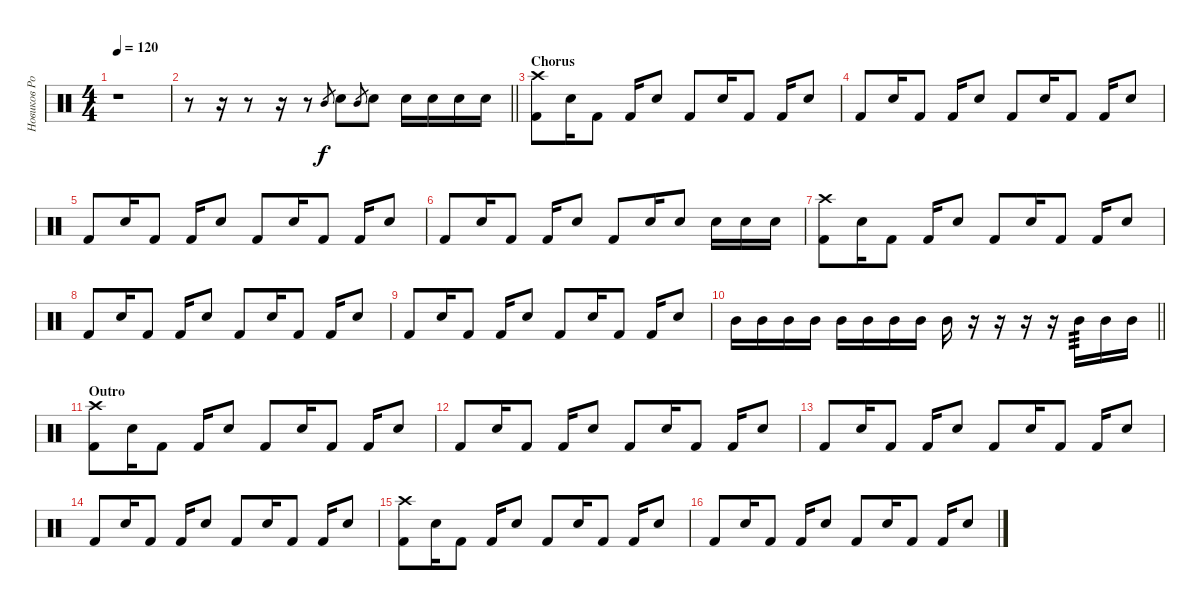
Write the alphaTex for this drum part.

\track ("Новиков Роман ( Ударные )" "Новиков Ро") {instrument percussion}
\staff {score}
\articulation defaults
\ts (4 4)
\tempo 120
\clef neutral
\ks c
r.1{dy f} |
\barLineRight lightlight
r.8 r.16 r.8 r.16 r.8 "Mid Tom (hit)"{h}.8{gr} "Snare (hit) 2".8 "Mid Tom (hit)"{h}.8{gr} "Snare (hit) 2".8 "Snare (hit) 2".16 "Snare (hit) 2".16 "Snare (hit) 2".16 "Snare (hit) 2".16 |
\section ("" "Chorus")
("Crash high (hit)" "Kick (hit) 2").8 "Electric Snare (hit)".16 "Kick (hit) 2".8 "Kick (hit) 2".16 "Electric Snare (hit)".8 "Kick (hit) 2".8 "Electric Snare (hit)".16 "Kick (hit) 2".8 "Kick (hit) 2".16 "Electric Snare (hit)".8 |
"Kick (hit) 2".8 "Electric Snare (hit)".16 "Kick (hit) 2".8 "Kick (hit) 2".16 "Electric Snare (hit)".8 "Kick (hit) 2".8 "Electric Snare (hit)".16 "Kick (hit) 2".8 "Kick (hit) 2".16 "Electric Snare (hit)".8 |
"Kick (hit) 2".8 "Electric Snare (hit)".16 "Kick (hit) 2".8 "Kick (hit) 2".16 "Electric Snare (hit)".8 "Kick (hit) 2".8 "Electric Snare (hit)".16 "Kick (hit) 2".8 "Kick (hit) 2".16 "Electric Snare (hit)".8 |
"Kick (hit) 2".8 "Electric Snare (hit)".16 "Kick (hit) 2".8 "Kick (hit) 2".16 "Electric Snare (hit)".8 "Kick (hit) 2".8 "Electric Snare (hit)".16 "Snare (hit) 2".8 "Snare (hit) 2".16 "Snare (hit) 2".16 "Snare (hit) 2".16 |
("Crash high (hit)" "Kick (hit) 2").8 "Electric Snare (hit)".16 "Kick (hit) 2".8 "Kick (hit) 2".16 "Electric Snare (hit)".8 "Kick (hit) 2".8 "Electric Snare (hit)".16 "Kick (hit) 2".8 "Kick (hit) 2".16 "Electric Snare (hit)".8 |
"Kick (hit) 2".8 "Electric Snare (hit)".16 "Kick (hit) 2".8 "Kick (hit) 2".16 "Electric Snare (hit)".8 "Kick (hit) 2".8 "Electric Snare (hit)".16 "Kick (hit) 2".8 "Kick (hit) 2".16 "Electric Snare (hit)".8 |
"Kick (hit) 2".8 "Electric Snare (hit)".16 "Kick (hit) 2".8 "Kick (hit) 2".16 "Electric Snare (hit)".8 "Kick (hit) 2".8 "Electric Snare (hit)".16 "Kick (hit) 2".8 "Kick (hit) 2".16 "Electric Snare (hit)".8 |
\barLineRight lightlight "Mid Tom (hit)".16 "Mid Tom (hit)".16 "Mid Tom (hit)".16 "Mid Tom (hit)".16 "Mid Tom (hit)".16 "Mid Tom (hit)".16 "Mid Tom (hit)".16 "Mid Tom (hit)".16 "Mid Tom (hit)".16
r.16 r.16 r.16 r.16 "Mid Tom (hit)".16{tp 3} "Mid Tom (hit)".16 "Mid Tom (hit)".16 |
\section ("" "Outro")
("Crash high (hit)" "Kick (hit) 2").8 "Electric Snare (hit)".16 "Kick (hit) 2".8 "Kick (hit) 2".16 "Electric Snare (hit)".8 "Kick (hit) 2".8 "Electric Snare (hit)".16 "Kick (hit) 2".8 "Kick (hit) 2".16 "Electric Snare (hit)".8 |
"Kick (hit) 2".8 "Electric Snare (hit)".16 "Kick (hit) 2".8 "Kick (hit) 2".16 "Electric Snare (hit)".8 "Kick (hit) 2".8 "Electric Snare (hit)".16 "Kick (hit) 2".8 "Kick (hit) 2".16 "Electric Snare (hit)".8 |
"Kick (hit) 2".8 "Electric Snare (hit)".16 "Kick (hit) 2".8 "Kick (hit) 2".16 "Electric Snare (hit)".8 "Kick (hit) 2".8 "Electric Snare (hit)".16 "Kick (hit) 2".8 "Kick (hit) 2".16 "Electric Snare (hit)".8 |
"Kick (hit) 2".8 "Electric Snare (hit)".16 "Kick (hit) 2".8 "Kick (hit) 2".16 "Electric Snare (hit)".8 "Kick (hit) 2".8 "Electric Snare (hit)".16 "Kick (hit) 2".8 "Kick (hit) 2".16 "Electric Snare (hit)".8 |
("Crash high (hit)" "Kick (hit) 2").8 "Electric Snare (hit)".16 "Kick (hit) 2".8 "Kick (hit) 2".16 "Electric Snare (hit)".8 "Kick (hit) 2".8 "Electric Snare (hit)".16 "Kick (hit) 2".8 "Kick (hit) 2".16 "Electric Snare (hit)".8 |
"Kick (hit) 2".8 "Electric Snare (hit)".16 "Kick (hit) 2".8 "Kick (hit) 2".16 "Electric Snare (hit)".8 "Kick (hit) 2".8 "Electric Snare (hit)".16 "Kick (hit) 2".8 "Kick (hit) 2".16 "Electric Snare (hit)".8
